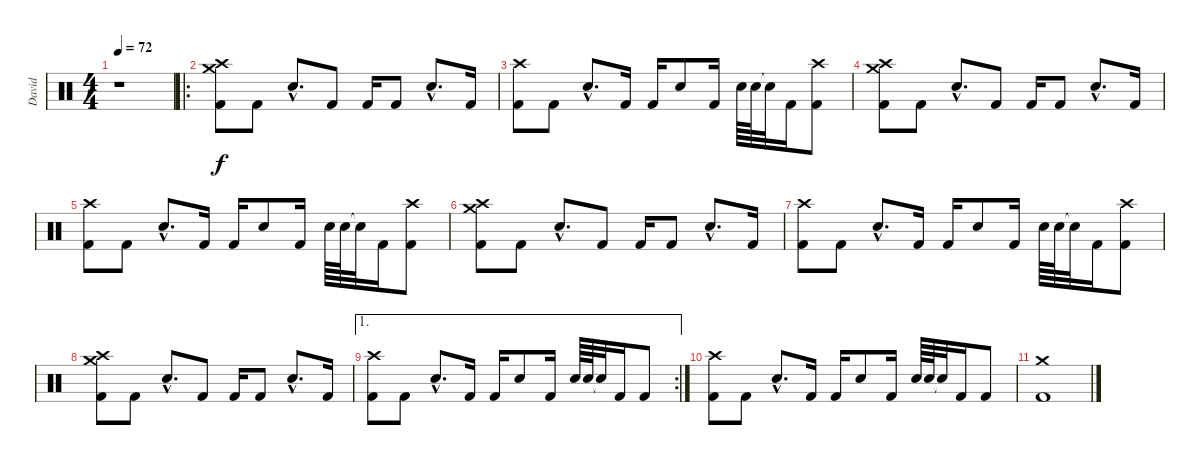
\track ("David" "David") {instrument percussion}
\staff {score}
\articulation defaults
\ts (4 4)
\tempo 72
\clef neutral
\ks c
r.1{dy f} |
\ro
("Crash high (hit)" "Crash medium (hit)" "Kick (hit) 2").8 "Kick (hit) 2".8 "Snare (hit) 2"{hac}.8{d} "Kick (hit) 2".8 "Kick (hit) 2".16 "Kick (hit) 2".8 "Snare (hit) 2"{hac}.8{d} "Kick (hit) 2".16 |
("Crash high (hit)" "Kick (hit) 2").8 "Kick (hit) 2".8 "Snare (hit) 2"{hac}.8{d} "Kick (hit) 2".16 "Kick (hit) 2".16 "Snare (hit) 2".8 "Kick (hit) 2".16 "Snare (hit) 2".64 "Snare (hit) 2".64 "Snare (hit)"{t}.32 "Kick (hit) 2".16 ("Crash high (hit)" "Kick (hit) 2").8 |
("Crash high (hit)" "Crash medium (hit)" "Kick (hit) 2").8 "Kick (hit) 2".8 "Snare (hit) 2"{hac}.8{d} "Kick (hit) 2".8 "Kick (hit) 2".16 "Kick (hit) 2".8 "Snare (hit) 2"{hac}.8{d} "Kick (hit) 2".16 |
("Crash high (hit)" "Kick (hit) 2").8 "Kick (hit) 2".8 "Snare (hit) 2"{hac}.8{d} "Kick (hit) 2".16 "Kick (hit) 2".16 "Snare (hit) 2".8 "Kick (hit) 2".16 "Snare (hit) 2".64 "Snare (hit) 2".64 "Snare (hit)"{t}.32 "Kick (hit) 2".16 ("Crash high (hit)" "Kick (hit) 2").8 |
("Crash high (hit)" "Crash medium (hit)" "Kick (hit) 2").8 "Kick (hit) 2".8 "Snare (hit) 2"{hac}.8{d} "Kick (hit) 2".8 "Kick (hit) 2".16 "Kick (hit) 2".8 "Snare (hit) 2"{hac}.8{d} "Kick (hit) 2".16 |
("Crash high (hit)" "Kick (hit) 2").8 "Kick (hit) 2".8 "Snare (hit) 2"{hac}.8{d} "Kick (hit) 2".16 "Kick (hit) 2".16 "Snare (hit) 2".8 "Kick (hit) 2".16 "Snare (hit) 2".64 "Snare (hit) 2".64 "Snare (hit)"{t}.32 "Kick (hit) 2".16 ("Crash high (hit)" "Kick (hit) 2").8 |
("Crash high (hit)" "Crash medium (hit)" "Kick (hit) 2").8 "Kick (hit) 2".8 "Snare (hit) 2"{hac}.8{d} "Kick (hit) 2".8 "Kick (hit) 2".16 "Kick (hit) 2".8 "Snare (hit) 2"{hac}.8{d} "Kick (hit) 2".16 |
\ae 1
\rc 2
("Crash high (hit)" "Kick (hit) 2").8 "Kick (hit) 2".8 "Snare (hit) 2"{hac}.8{d} "Kick (hit) 2".16 "Kick (hit) 2".16 "Snare (hit) 2".8 "Kick (hit) 2".16 "Snare (hit) 2".64 "Snare (hit) 2".64 "Snare (hit)"{t}.32 "Kick (hit) 2".16 "Kick (hit) 2".8 |
("Crash high (hit)" "Kick (hit) 2").8 "Kick (hit) 2".8 "Snare (hit) 2"{hac}.8{d} "Kick (hit) 2".16 "Kick (hit) 2".16 "Snare (hit) 2".8 "Kick (hit) 2".16 "Snare (hit) 2".64 "Snare (hit) 2".64 "Snare (hit)"{t}.32 "Kick (hit) 2".16 "Kick (hit) 2".8 |
("Crash medium (hit)" "Kick (hit) 2").1
